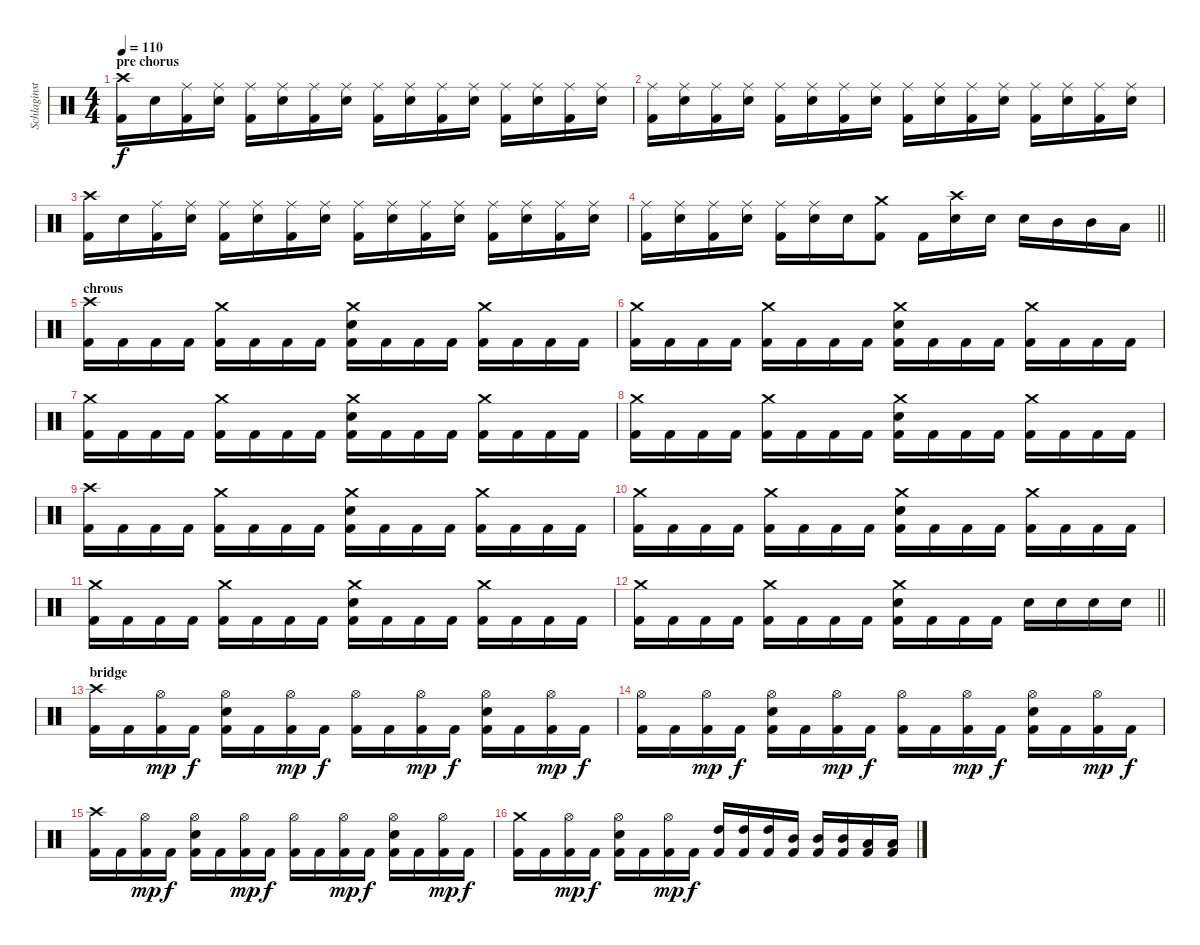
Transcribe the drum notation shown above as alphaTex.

\track ("Schlaginstrumente - Auswahl" "Schlaginst") {instrument percussion}
\staff {score}
\articulation defaults
\ts (4 4)
\section ("" "pre chorus")
\tempo 110
\clef neutral
\ks c
("Crash high (hit)" "Kick (hit) 2").16{dy f} "Electric Snare (hit)".16 ("Ride (middle)" "Kick (hit) 2").16 ("Ride (middle)" "Electric Snare (hit)").16 ("Ride (middle)" "Kick (hit) 2").16 ("Ride (middle)" "Electric Snare (hit)").16 ("Ride (middle)" "Kick (hit) 2").16 ("Ride (middle)" "Electric Snare (hit)").16 ("Ride (middle)" "Kick (hit) 2").16 ("Ride (middle)" "Electric Snare (hit)").16 ("Ride (middle)" "Kick (hit) 2").16 ("Ride (middle)" "Electric Snare (hit)").16 ("Ride (middle)" "Kick (hit) 2").16 ("Ride (middle)" "Electric Snare (hit)").16 ("Ride (middle)" "Kick (hit) 2").16 ("Ride (middle)" "Electric Snare (hit)").16 |
("Ride (middle)" "Kick (hit) 2").16 ("Ride (middle)" "Electric Snare (hit)").16 ("Ride (middle)" "Kick (hit) 2").16 ("Ride (middle)" "Electric Snare (hit)").16 ("Ride (middle)" "Kick (hit) 2").16 ("Ride (middle)" "Electric Snare (hit)").16 ("Ride (middle)" "Kick (hit) 2").16 ("Ride (middle)" "Electric Snare (hit)").16 ("Ride (middle)" "Kick (hit) 2").16 ("Ride (middle)" "Electric Snare (hit)").16 ("Ride (middle)" "Kick (hit) 2").16 ("Ride (middle)" "Electric Snare (hit)").16 ("Ride (middle)" "Kick (hit) 2").16 ("Ride (middle)" "Electric Snare (hit)").16 ("Ride (middle)" "Kick (hit) 2").16 ("Ride (middle)" "Electric Snare (hit)").16 |
("Crash high (hit)" "Kick (hit) 2").16 "Electric Snare (hit)".16 ("Ride (middle)" "Kick (hit) 2").16 ("Ride (middle)" "Electric Snare (hit)").16 ("Ride (middle)" "Kick (hit) 2").16 ("Ride (middle)" "Electric Snare (hit)").16 ("Ride (middle)" "Kick (hit) 2").16 ("Ride (middle)" "Electric Snare (hit)").16 ("Ride (middle)" "Kick (hit) 2").16 ("Ride (middle)" "Electric Snare (hit)").16 ("Ride (middle)" "Kick (hit) 2").16 ("Ride (middle)" "Electric Snare (hit)").16 ("Ride (middle)" "Kick (hit) 2").16 ("Ride (middle)" "Electric Snare (hit)").16 ("Ride (middle)" "Kick (hit) 2").16 ("Ride (middle)" "Electric Snare (hit)").16 |
\barLineRight lightlight
("Ride (middle)" "Kick (hit) 2").16 ("Ride (middle)" "Electric Snare (hit)").16 ("Ride (middle)" "Kick (hit) 2").16 ("Ride (middle)" "Electric Snare (hit)").16 ("Ride (middle)" "Kick (hit) 2").16 ("Ride (middle)" "Electric Snare (hit)").16 "Electric Snare (hit)".16 ("Crash medium (hit)" "Kick (hit) 2").8 "Kick (hit) 2".16 ("Crash high (hit)" "Electric Snare (hit)").16 "Electric Snare (hit)".16 "Electric Snare (hit)".16 "Mid Tom (hit)".16 "Mid Tom (hit)".16 "Low Tom (hit)".16 |
\section ("" "chrous")
("Crash high (hit)" "Kick (hit) 2").16 "Kick (hit) 2".16 "Kick (hit) 2".16 "Kick (hit) 2".16 ("Crash medium (hit)" "Kick (hit) 2").16 "Kick (hit) 2".16 "Kick (hit) 2".16 "Kick (hit) 2".16 ("Crash medium (hit)" "Electric Snare (hit)" "Kick (hit) 2").16 "Kick (hit) 2".16 "Kick (hit) 2".16 "Kick (hit) 2".16 ("Crash medium (hit)" "Kick (hit) 2").16 "Kick (hit) 2".16 "Kick (hit) 2".16 "Kick (hit) 2".16 |
("Crash medium (hit)" "Kick (hit) 2").16 "Kick (hit) 2".16 "Kick (hit) 2".16 "Kick (hit) 2".16 ("Crash medium (hit)" "Kick (hit) 2").16 "Kick (hit) 2".16 "Kick (hit) 2".16 "Kick (hit) 2".16 ("Crash medium (hit)" "Electric Snare (hit)" "Kick (hit) 2").16 "Kick (hit) 2".16 "Kick (hit) 2".16 "Kick (hit) 2".16 ("Crash medium (hit)" "Kick (hit) 2").16 "Kick (hit) 2".16 "Kick (hit) 2".16 "Kick (hit) 2".16 |
("Crash medium (hit)" "Kick (hit) 2").16 "Kick (hit) 2".16 "Kick (hit) 2".16 "Kick (hit) 2".16 ("Crash medium (hit)" "Kick (hit) 2").16 "Kick (hit) 2".16 "Kick (hit) 2".16 "Kick (hit) 2".16 ("Crash medium (hit)" "Electric Snare (hit)" "Kick (hit) 2").16 "Kick (hit) 2".16 "Kick (hit) 2".16 "Kick (hit) 2".16 ("Crash medium (hit)" "Kick (hit) 2").16 "Kick (hit) 2".16 "Kick (hit) 2".16 "Kick (hit) 2".16 |
("Crash medium (hit)" "Kick (hit) 2").16 "Kick (hit) 2".16 "Kick (hit) 2".16 "Kick (hit) 2".16 ("Crash medium (hit)" "Kick (hit) 2").16 "Kick (hit) 2".16 "Kick (hit) 2".16 "Kick (hit) 2".16 ("Crash medium (hit)" "Electric Snare (hit)" "Kick (hit) 2").16 "Kick (hit) 2".16 "Kick (hit) 2".16 "Kick (hit) 2".16 ("Crash medium (hit)" "Kick (hit) 2").16 "Kick (hit) 2".16 "Kick (hit) 2".16 "Kick (hit) 2".16 |
("Crash high (hit)" "Kick (hit) 2").16 "Kick (hit) 2".16 "Kick (hit) 2".16 "Kick (hit) 2".16 ("Crash medium (hit)" "Kick (hit) 2").16 "Kick (hit) 2".16 "Kick (hit) 2".16 "Kick (hit) 2".16 ("Crash medium (hit)" "Electric Snare (hit)" "Kick (hit) 2").16 "Kick (hit) 2".16 "Kick (hit) 2".16 "Kick (hit) 2".16 ("Crash medium (hit)" "Kick (hit) 2").16 "Kick (hit) 2".16 "Kick (hit) 2".16 "Kick (hit) 2".16 |
("Crash medium (hit)" "Kick (hit) 2").16 "Kick (hit) 2".16 "Kick (hit) 2".16 "Kick (hit) 2".16 ("Crash medium (hit)" "Kick (hit) 2").16 "Kick (hit) 2".16 "Kick (hit) 2".16 "Kick (hit) 2".16 ("Crash medium (hit)" "Electric Snare (hit)" "Kick (hit) 2").16 "Kick (hit) 2".16 "Kick (hit) 2".16 "Kick (hit) 2".16 ("Crash medium (hit)" "Kick (hit) 2").16 "Kick (hit) 2".16 "Kick (hit) 2".16 "Kick (hit) 2".16 |
("Crash medium (hit)" "Kick (hit) 2").16 "Kick (hit) 2".16 "Kick (hit) 2".16 "Kick (hit) 2".16 ("Crash medium (hit)" "Kick (hit) 2").16 "Kick (hit) 2".16 "Kick (hit) 2".16 "Kick (hit) 2".16 ("Crash medium (hit)" "Electric Snare (hit)" "Kick (hit) 2").16 "Kick (hit) 2".16 "Kick (hit) 2".16 "Kick (hit) 2".16 ("Crash medium (hit)" "Kick (hit) 2").16 "Kick (hit) 2".16 "Kick (hit) 2".16 "Kick (hit) 2".16 |
\barLineRight lightlight
("Crash medium (hit)" "Kick (hit) 2").16 "Kick (hit) 2".16 "Kick (hit) 2".16 "Kick (hit) 2".16 ("Crash medium (hit)" "Kick (hit) 2").16 "Kick (hit) 2".16 "Kick (hit) 2".16 "Kick (hit) 2".16 ("Crash medium (hit)" "Electric Snare (hit)" "Kick (hit) 2").16 "Kick (hit) 2".16 "Kick (hit) 2".16 "Kick (hit) 2".16 "Electric Snare (hit)".16 "Electric Snare (hit)".16 "Electric Snare (hit)".16 "Electric Snare (hit)".16 |
\section ("" "bridge")
("Crash high (hit)" "Kick (hit) 2").16 "Kick (hit) 2".16 ("Hi-Hat (open)" "Kick (hit) 2").16{dy mp} "Kick (hit) 2".16{dy f} ("Hi-Hat (open)" "Electric Snare (hit)" "Kick (hit) 2").16 "Kick (hit) 2".16 ("Hi-Hat (open)" "Kick (hit) 2").16{dy mp} "Kick (hit) 2".16{dy f} ("Hi-Hat (open)" "Kick (hit) 2").16 "Kick (hit) 2".16 ("Hi-Hat (open)" "Kick (hit) 2").16{dy mp} "Kick (hit) 2".16{dy f} ("Hi-Hat (open)" "Electric Snare (hit)" "Kick (hit) 2").16 "Kick (hit) 2".16 ("Hi-Hat (open)" "Kick (hit) 2").16{dy mp} "Kick (hit) 2".16{dy f} |
("Hi-Hat (open)" "Kick (hit) 2").16 "Kick (hit) 2".16 ("Hi-Hat (open)" "Kick (hit) 2").16{dy mp} "Kick (hit) 2".16{dy f} ("Hi-Hat (open)" "Electric Snare (hit)" "Kick (hit) 2").16 "Kick (hit) 2".16 ("Hi-Hat (open)" "Kick (hit) 2").16{dy mp} "Kick (hit) 2".16{dy f} ("Hi-Hat (open)" "Kick (hit) 2").16 "Kick (hit) 2".16 ("Hi-Hat (open)" "Kick (hit) 2").16{dy mp} "Kick (hit) 2".16{dy f} ("Hi-Hat (open)" "Electric Snare (hit)" "Kick (hit) 2").16 "Kick (hit) 2".16 ("Hi-Hat (open)" "Kick (hit) 2").16{dy mp} "Kick (hit) 2".16{dy f} |
("Crash high (hit)" "Kick (hit) 2").16 "Kick (hit) 2".16 ("Hi-Hat (open)" "Kick (hit) 2").16{dy mp} "Kick (hit) 2".16{dy f} ("Hi-Hat (open)" "Electric Snare (hit)" "Kick (hit) 2").16 "Kick (hit) 2".16 ("Hi-Hat (open)" "Kick (hit) 2").16{dy mp} "Kick (hit) 2".16{dy f} ("Hi-Hat (open)" "Kick (hit) 2").16 "Kick (hit) 2".16 ("Hi-Hat (open)" "Kick (hit) 2").16{dy mp} "Kick (hit) 2".16{dy f} ("Hi-Hat (open)" "Electric Snare (hit)" "Kick (hit) 2").16 "Kick (hit) 2".16 ("Hi-Hat (open)" "Kick (hit) 2").16{dy mp} "Kick (hit) 2".16{dy f} |
("Crash medium (hit)" "Kick (hit) 2").16 "Kick (hit) 2".16 ("Hi-Hat (open)" "Kick (hit) 2").16{dy mp} "Kick (hit) 2".16{dy f} ("Hi-Hat (open)" "Electric Snare (hit)" "Kick (hit) 2").16 "Kick (hit) 2".16 ("Hi-Hat (open)" "Kick (hit) 2").16{dy mp} "Kick (hit) 2".16{dy f} ("High Tom (hit)" "Kick (hit) 2").16 ("High Tom (hit)" "Kick (hit) 2").16 ("High Tom (hit)" "Kick (hit) 2").16 ("Mid Tom (hit)" "Kick (hit) 2").16 ("Mid Tom (hit)" "Kick (hit) 2").16 ("Mid Tom (hit)" "Kick (hit) 2").16 ("Low Tom (hit)" "Kick (hit) 2").16 ("Low Tom (hit)" "Kick (hit) 2").16
